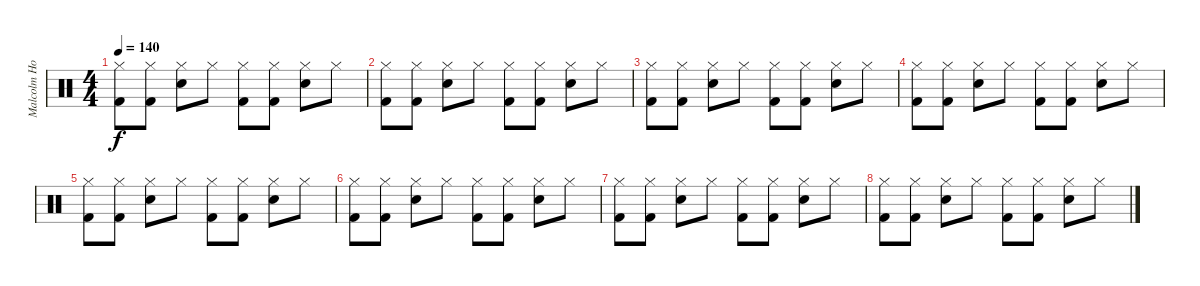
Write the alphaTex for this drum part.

\track ("Malcolm Holmes - Drums" "Malcolm Ho") {instrument percussion}
\staff {score}
\articulation defaults
\ts (4 4)
\tempo 140
\clef neutral
\ks c
("Kick (hit) 2" "Hi-Hat (closed)").8{dy f} ("Kick (hit) 2" "Hi-Hat (closed)").8 ("Snare (hit) 2" "Hi-Hat (closed)").8 "Hi-Hat (closed)".8 ("Kick (hit) 2" "Hi-Hat (closed)").8 ("Kick (hit) 2" "Hi-Hat (closed)").8 ("Snare (hit) 2" "Hi-Hat (closed)").8 "Hi-Hat (closed)".8 |
("Kick (hit) 2" "Hi-Hat (closed)").8 ("Kick (hit) 2" "Hi-Hat (closed)").8 ("Snare (hit) 2" "Hi-Hat (closed)").8 "Hi-Hat (closed)".8 ("Kick (hit) 2" "Hi-Hat (closed)").8 ("Kick (hit) 2" "Hi-Hat (closed)").8 ("Snare (hit) 2" "Hi-Hat (closed)").8 "Hi-Hat (closed)".8 |
("Kick (hit) 2" "Hi-Hat (closed)").8 ("Kick (hit) 2" "Hi-Hat (closed)").8 ("Snare (hit) 2" "Hi-Hat (closed)").8 "Hi-Hat (closed)".8 ("Kick (hit) 2" "Hi-Hat (closed)").8 ("Kick (hit) 2" "Hi-Hat (closed)").8 ("Snare (hit) 2" "Hi-Hat (closed)").8 "Hi-Hat (closed)".8 |
("Kick (hit) 2" "Hi-Hat (closed)").8 ("Kick (hit) 2" "Hi-Hat (closed)").8 ("Snare (hit) 2" "Hi-Hat (closed)").8 "Hi-Hat (closed)".8 ("Kick (hit) 2" "Hi-Hat (closed)").8 ("Kick (hit) 2" "Hi-Hat (closed)").8 ("Snare (hit) 2" "Hi-Hat (closed)").8 "Hi-Hat (closed)".8 |
("Kick (hit) 2" "Hi-Hat (closed)").8 ("Kick (hit) 2" "Hi-Hat (closed)").8 ("Snare (hit) 2" "Hi-Hat (closed)").8 "Hi-Hat (closed)".8 ("Kick (hit) 2" "Hi-Hat (closed)").8 ("Kick (hit) 2" "Hi-Hat (closed)").8 ("Snare (hit) 2" "Hi-Hat (closed)").8 "Hi-Hat (closed)".8 |
("Kick (hit) 2" "Hi-Hat (closed)").8 ("Kick (hit) 2" "Hi-Hat (closed)").8 ("Snare (hit) 2" "Hi-Hat (closed)").8 "Hi-Hat (closed)".8 ("Kick (hit) 2" "Hi-Hat (closed)").8 ("Kick (hit) 2" "Hi-Hat (closed)").8 ("Snare (hit) 2" "Hi-Hat (closed)").8 "Hi-Hat (closed)".8 |
("Kick (hit) 2" "Hi-Hat (closed)").8 ("Kick (hit) 2" "Hi-Hat (closed)").8 ("Snare (hit) 2" "Hi-Hat (closed)").8 "Hi-Hat (closed)".8 ("Kick (hit) 2" "Hi-Hat (closed)").8 ("Kick (hit) 2" "Hi-Hat (closed)").8 ("Snare (hit) 2" "Hi-Hat (closed)").8 "Hi-Hat (closed)".8 |
("Kick (hit) 2" "Hi-Hat (closed)").8 ("Kick (hit) 2" "Hi-Hat (closed)").8 ("Snare (hit) 2" "Hi-Hat (closed)").8 "Hi-Hat (closed)".8 ("Kick (hit) 2" "Hi-Hat (closed)").8 ("Kick (hit) 2" "Hi-Hat (closed)").8 ("Snare (hit) 2" "Hi-Hat (closed)").8 "Hi-Hat (closed)".8
